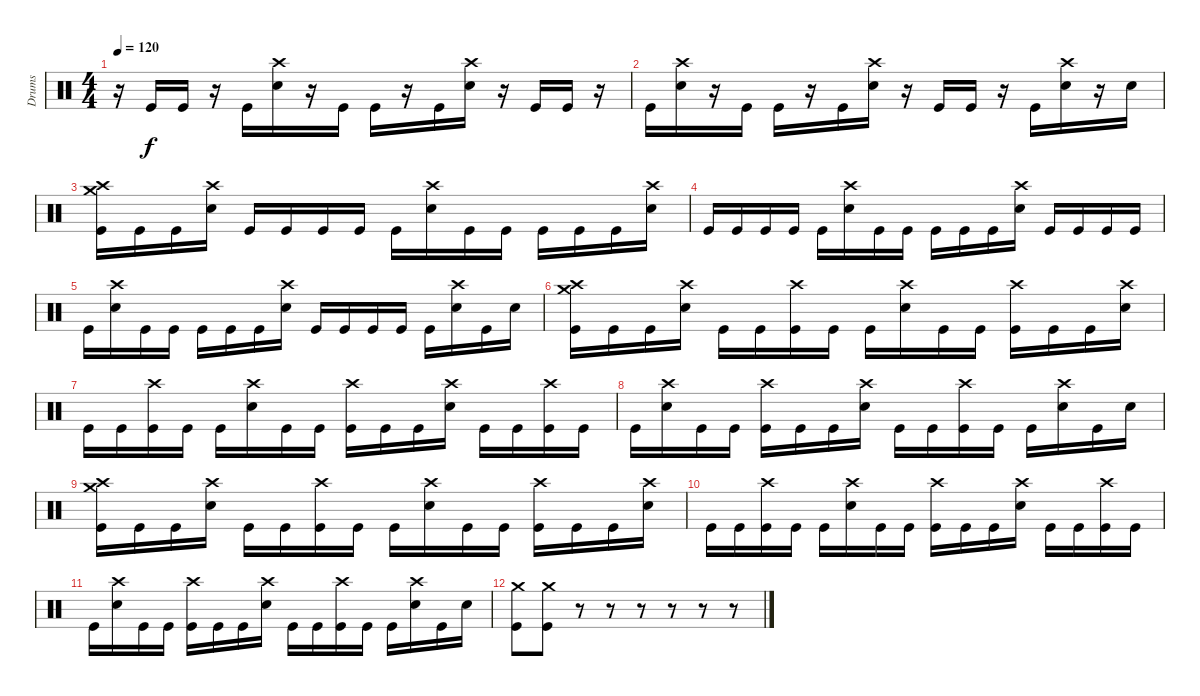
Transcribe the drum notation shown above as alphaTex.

\track ("Drums" "Drums") {instrument percussion}
\staff {score}
\articulation defaults
\ts (4 4)
\tempo 120
\clef neutral
\ks c
r.16{dy f} "Kick (hit)".16 "Kick (hit)".16 r.16 "Kick (hit)".16 ("Crash high (hit)" "Electric Snare (hit)").16 r.16 "Kick (hit)".16 "Kick (hit)".16 r.16 "Kick (hit)".16 ("Crash high (hit)" "Electric Snare (hit)").16 r.16 "Kick (hit)".16 "Kick (hit)".16 r.16 |
"Kick (hit)".16 ("Crash high (hit)" "Electric Snare (hit)").16 r.16 "Kick (hit)".16 "Kick (hit)".16 r.16 "Kick (hit)".16 ("Crash high (hit)" "Electric Snare (hit)").16 r.16 "Kick (hit)".16 "Kick (hit)".16 r.16 "Kick (hit)".16 ("Crash high (hit)" "Electric Snare (hit)").16 r.16 "Electric Snare (hit)".16 |
("Crash high (hit)" "Crash medium (hit)" "Kick (hit)").16 "Kick (hit)".16 "Kick (hit)".16 ("Crash high (hit)" "Electric Snare (hit)").16 "Kick (hit)".16 "Kick (hit)".16 "Kick (hit)".16 "Kick (hit)".16 "Kick (hit)".16 ("Crash high (hit)" "Electric Snare (hit)").16 "Kick (hit)".16 "Kick (hit)".16 "Kick (hit)".16 "Kick (hit)".16 "Kick (hit)".16 ("Crash high (hit)" "Electric Snare (hit)").16 |
"Kick (hit)".16 "Kick (hit)".16 "Kick (hit)".16 "Kick (hit)".16 "Kick (hit)".16 ("Crash high (hit)" "Electric Snare (hit)").16 "Kick (hit)".16 "Kick (hit)".16 "Kick (hit)".16 "Kick (hit)".16 "Kick (hit)".16 ("Crash high (hit)" "Electric Snare (hit)").16 "Kick (hit)".16 "Kick (hit)".16 "Kick (hit)".16 "Kick (hit)".16 |
"Kick (hit)".16 ("Crash high (hit)" "Electric Snare (hit)").16 "Kick (hit)".16 "Kick (hit)".16 "Kick (hit)".16 "Kick (hit)".16 "Kick (hit)".16 ("Crash high (hit)" "Electric Snare (hit)").16 "Kick (hit)".16 "Kick (hit)".16 "Kick (hit)".16 "Kick (hit)".16 "Kick (hit)".16 ("Crash high (hit)" "Electric Snare (hit)").16 "Kick (hit)".16 "Electric Snare (hit)".16 |
("Crash high (hit)" "Crash medium (hit)" "Kick (hit)").16 "Kick (hit)".16 "Kick (hit)".16 ("Crash high (hit)" "Electric Snare (hit)").16 "Kick (hit)".16 "Kick (hit)".16 ("Crash high (hit)" "Kick (hit)").16 "Kick (hit)".16 "Kick (hit)".16 ("Crash high (hit)" "Electric Snare (hit)").16 "Kick (hit)".16 "Kick (hit)".16 ("Crash high (hit)" "Kick (hit)").16 "Kick (hit)".16 "Kick (hit)".16 ("Crash high (hit)" "Electric Snare (hit)").16 |
"Kick (hit)".16 "Kick (hit)".16 ("Crash high (hit)" "Kick (hit)").16 "Kick (hit)".16 "Kick (hit)".16 ("Crash high (hit)" "Electric Snare (hit)").16 "Kick (hit)".16 "Kick (hit)".16 ("Crash high (hit)" "Kick (hit)").16 "Kick (hit)".16 "Kick (hit)".16 ("Crash high (hit)" "Electric Snare (hit)").16 "Kick (hit)".16 "Kick (hit)".16 ("Crash high (hit)" "Kick (hit)").16 "Kick (hit)".16 |
"Kick (hit)".16 ("Crash high (hit)" "Electric Snare (hit)").16 "Kick (hit)".16 "Kick (hit)".16 ("Crash high (hit)" "Kick (hit)").16 "Kick (hit)".16 "Kick (hit)".16 ("Crash high (hit)" "Electric Snare (hit)").16 "Kick (hit)".16 "Kick (hit)".16 ("Crash high (hit)" "Kick (hit)").16 "Kick (hit)".16 "Kick (hit)".16 ("Crash high (hit)" "Electric Snare (hit)").16 "Kick (hit)".16 "Electric Snare (hit)".16 |
("Crash high (hit)" "Crash medium (hit)" "Kick (hit)").16 "Kick (hit)".16 "Kick (hit)".16 ("Crash high (hit)" "Electric Snare (hit)").16 "Kick (hit)".16 "Kick (hit)".16 ("Crash high (hit)" "Kick (hit)").16 "Kick (hit)".16 "Kick (hit)".16 ("Crash high (hit)" "Electric Snare (hit)").16 "Kick (hit)".16 "Kick (hit)".16 ("Crash high (hit)" "Kick (hit)").16 "Kick (hit)".16 "Kick (hit)".16 ("Crash high (hit)" "Electric Snare (hit)").16 |
"Kick (hit)".16 "Kick (hit)".16 ("Crash high (hit)" "Kick (hit)").16 "Kick (hit)".16 "Kick (hit)".16 ("Crash high (hit)" "Electric Snare (hit)").16 "Kick (hit)".16 "Kick (hit)".16 ("Crash high (hit)" "Kick (hit)").16 "Kick (hit)".16 "Kick (hit)".16 ("Crash high (hit)" "Electric Snare (hit)").16 "Kick (hit)".16 "Kick (hit)".16 ("Crash high (hit)" "Kick (hit)").16 "Kick (hit)".16 |
"Kick (hit)".16 ("Crash high (hit)" "Electric Snare (hit)").16 "Kick (hit)".16 "Kick (hit)".16 ("Crash high (hit)" "Kick (hit)").16 "Kick (hit)".16 "Kick (hit)".16 ("Crash high (hit)" "Electric Snare (hit)").16 "Kick (hit)".16 "Kick (hit)".16 ("Crash high (hit)" "Kick (hit)").16 "Kick (hit)".16 "Kick (hit)".16 ("Crash high (hit)" "Electric Snare (hit)").16 "Kick (hit)".16 "Electric Snare (hit)".16 |
("Crash medium (hit)" "Kick (hit)").8 ("Crash medium (hit)" "Kick (hit)").8 r.8 r.8 r.8 r.8 r.8 r.8
